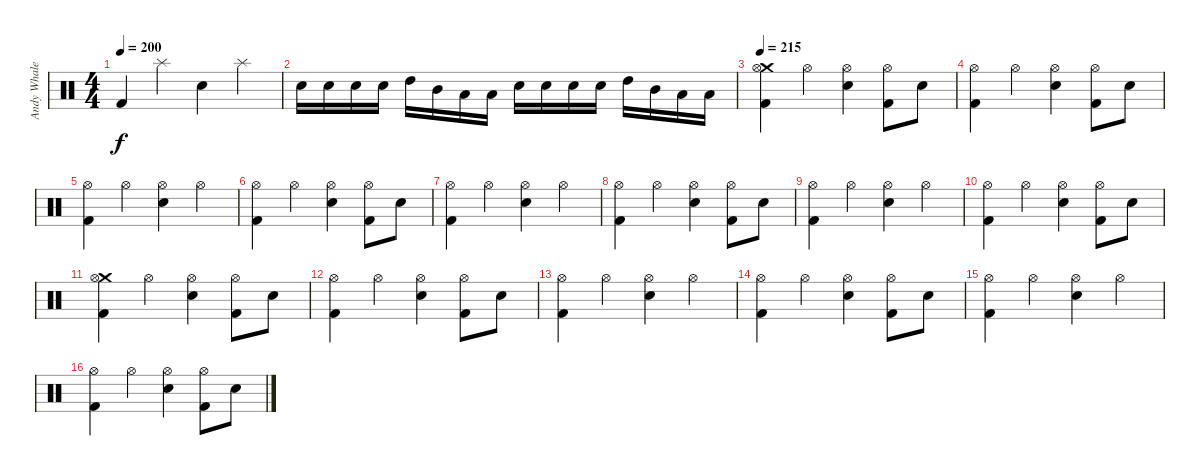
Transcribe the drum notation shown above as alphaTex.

\track ("Andy Whale" "Andy Whale") {instrument percussion}
\staff {score}
\articulation defaults
\ts (4 4)
\tempo 200
\clef neutral
\ks c "Kick (hit) 2".4{dy f} "Splash (hit)".4 "Electric Snare (hit)".4 "Splash (hit)".4
|
"Electric Snare (hit)".16 "Electric Snare (hit)".16 "Electric Snare (hit)".16 "Electric Snare (hit)".16 "High Tom (hit)".16 "Mid Tom (hit)".16 "Low Tom (hit)".16 "Low Tom (hit)".16 "Electric Snare (hit)".16 "Electric Snare (hit)".16 "Electric Snare (hit)".16 "Electric Snare (hit)".16 "High Tom (hit)".16 "Mid Tom (hit)".16 "Low Tom (hit)".16 "Low Tom (hit)".16 |
\tempo 215
("Crash medium (hit)" "Hi-Hat (open)" "Kick (hit) 2").4 "Hi-Hat (open)".4 ("Hi-Hat (open)" "Electric Snare (hit)").4 ("Hi-Hat (open)" "Kick (hit) 2").8 "Electric Snare (hit)".8 |
("Hi-Hat (open)" "Kick (hit) 2").4 "Hi-Hat (open)".4 ("Hi-Hat (open)" "Electric Snare (hit)").4 ("Hi-Hat (open)" "Kick (hit) 2").8 "Electric Snare (hit)".8 |
("Hi-Hat (open)" "Kick (hit) 2").4 "Hi-Hat (open)".4 ("Hi-Hat (open)" "Electric Snare (hit)").4 "Hi-Hat (open)".4 |
("Hi-Hat (open)" "Kick (hit) 2").4 "Hi-Hat (open)".4 ("Hi-Hat (open)" "Electric Snare (hit)").4 ("Hi-Hat (open)" "Kick (hit) 2").8 "Electric Snare (hit)".8 |
("Hi-Hat (open)" "Kick (hit) 2").4 "Hi-Hat (open)".4 ("Hi-Hat (open)" "Electric Snare (hit)").4 "Hi-Hat (open)".4 |
("Hi-Hat (open)" "Kick (hit) 2").4 "Hi-Hat (open)".4 ("Hi-Hat (open)" "Electric Snare (hit)").4 ("Hi-Hat (open)" "Kick (hit) 2").8 "Electric Snare (hit)".8 |
("Hi-Hat (open)" "Kick (hit) 2").4 "Hi-Hat (open)".4 ("Hi-Hat (open)" "Electric Snare (hit)").4 "Hi-Hat (open)".4 |
("Hi-Hat (open)" "Kick (hit) 2").4 "Hi-Hat (open)".4 ("Hi-Hat (open)" "Electric Snare (hit)").4 ("Hi-Hat (open)" "Kick (hit) 2").8 "Electric Snare (hit)".8 |
("Crash medium (hit)" "Hi-Hat (open)" "Kick (hit) 2").4 "Hi-Hat (open)".4 ("Hi-Hat (open)" "Electric Snare (hit)").4 ("Hi-Hat (open)" "Kick (hit) 2").8 "Electric Snare (hit)".8 |
("Hi-Hat (open)" "Kick (hit) 2").4 "Hi-Hat (open)".4 ("Hi-Hat (open)" "Electric Snare (hit)").4 ("Hi-Hat (open)" "Kick (hit) 2").8 "Electric Snare (hit)".8 |
("Hi-Hat (open)" "Kick (hit) 2").4 "Hi-Hat (open)".4 ("Hi-Hat (open)" "Electric Snare (hit)").4 "Hi-Hat (open)".4 |
("Hi-Hat (open)" "Kick (hit) 2").4 "Hi-Hat (open)".4 ("Hi-Hat (open)" "Electric Snare (hit)").4 ("Hi-Hat (open)" "Kick (hit) 2").8 "Electric Snare (hit)".8 |
("Hi-Hat (open)" "Kick (hit) 2").4 "Hi-Hat (open)".4 ("Hi-Hat (open)" "Electric Snare (hit)").4 "Hi-Hat (open)".4 |
("Hi-Hat (open)" "Kick (hit) 2").4 "Hi-Hat (open)".4 ("Hi-Hat (open)" "Electric Snare (hit)").4 ("Hi-Hat (open)" "Kick (hit) 2").8 "Electric Snare (hit)".8
